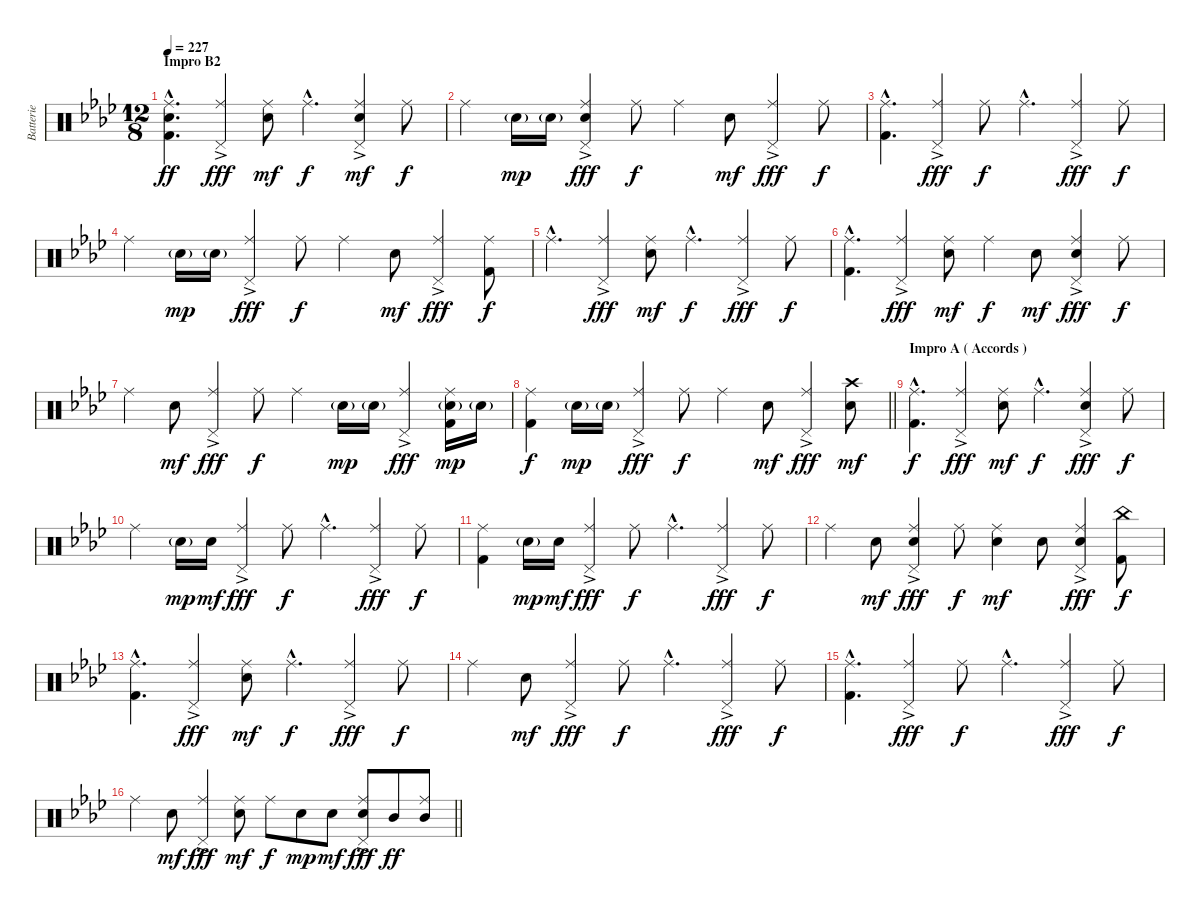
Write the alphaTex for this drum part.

\track ("Batterie" "Batterie") {instrument percussion}
\staff {score}
\articulation defaults
\ts (12 8)
\section ("" "Impro B2")
\tempo 227
\clef neutral
\ks fminor
("Ride (middle)"{hac} "Snare (hit) 2"{hac} "Kick (hit) 2"{hac}).4{d dy ff volume 12 balance 8} ("Ride (middle)" "Pedal Hi-Hat (hit)"{ac}).4{dy fff} ("Ride (middle)" "Snare (hit) 2").8{dy mf} "Ride (middle)"{hac}.4{d dy f} ("Ride (middle)" "Pedal Hi-Hat (hit)"{ac} "Snare (hit) 2").4{dy mf} "Ride (middle)".8{dy f} |
"Ride (middle)".4 "Snare (hit) 2"{g}.16{dy mp} "Snare (hit) 2"{g}.16 ("Ride (middle)" "Pedal Hi-Hat (hit)"{ac} "Snare (hit) 2"{ac}).4{dy fff} "Ride (middle)".8{dy f} "Ride (middle)".4 "Snare (hit) 2".8{dy mf} ("Ride (middle)" "Pedal Hi-Hat (hit)"{ac}).4{dy fff} "Ride (middle)".8{dy f} |
("Ride (middle)"{hac} "Kick (hit) 2"{hac}).4{d} ("Ride (middle)" "Pedal Hi-Hat (hit)"{ac}).4{dy fff} "Ride (middle)".8{dy f} "Ride (middle)"{hac}.4{d} ("Ride (middle)" "Pedal Hi-Hat (hit)"{ac}).4{dy fff} "Ride (middle)".8{dy f} |
"Ride (middle)".4 "Snare (hit) 2"{g}.16{dy mp} "Snare (hit) 2"{g}.16 ("Ride (middle)" "Pedal Hi-Hat (hit)"{ac}).4{dy fff} "Ride (middle)".8{dy f} "Ride (middle)".4 "Snare (hit) 2".8{dy mf} ("Ride (middle)" "Pedal Hi-Hat (hit)"{ac}).4{dy fff} ("Ride (middle)" "Kick (hit) 2").8{dy f} |
"Ride (middle)"{hac}.4{d} ("Ride (middle)" "Pedal Hi-Hat (hit)"{ac}).4{dy fff} ("Ride (middle)" "Snare (hit) 2").8{dy mf} "Ride (middle)"{hac}.4{d dy f} ("Ride (middle)" "Pedal Hi-Hat (hit)"{ac}).4{dy fff} "Ride (middle)".8{dy f} |
("Ride (middle)"{hac} "Kick (hit) 2"{hac}).4{d} ("Ride (middle)" "Pedal Hi-Hat (hit)"{ac}).4{dy fff} ("Ride (middle)" "Snare (hit) 2").8{dy mf} "Ride (middle)".4{dy f} "Snare (hit) 2".8{dy mf} ("Ride (middle)" "Pedal Hi-Hat (hit)"{ac} "Snare (hit) 2").4{dy fff} "Ride (middle)".8{dy f} |
"Ride (middle)".4 "Snare (hit) 2".8{dy mf} ("Ride (middle)" "Pedal Hi-Hat (hit)"{ac}).4{dy fff} "Ride (middle)".8{dy f} "Ride (middle)".4 "Snare (hit) 2"{g}.16{dy mp} "Snare (hit) 2"{g}.16 ("Ride (middle)" "Pedal Hi-Hat (hit)"{ac}).4{dy fff} ("Ride (middle)" "Snare (hit) 2"{g} "Kick (hit) 2").16{dy mp} "Snare (hit) 2"{g}.16 |
\barLineRight lightlight
("Ride (middle)" "Kick (hit) 2").4{dy f} "Snare (hit) 2"{g}.16{dy mp} "Snare (hit) 2"{g}.16 ("Ride (middle)" "Pedal Hi-Hat (hit)"{ac}).4{dy fff} "Ride (middle)".8{dy f} "Ride (middle)".4 "Snare (hit) 2".8{dy mf} ("Ride (middle)" "Pedal Hi-Hat (hit)"{ac}).4{dy fff} ("Crash high (hit)" "Snare (hit) 2").8{dy mf} |
\section ("" "Impro A ( Accords )")
("Ride (middle)"{hac} "Kick (hit) 2"{hac}).4{d dy f volume 12 balance 8} ("Ride (middle)" "Pedal Hi-Hat (hit)"{ac}).4{dy fff} ("Ride (middle)" "Snare (hit) 2").8{dy mf} "Ride (middle)"{hac}.4{d dy f} ("Ride (middle)" "Pedal Hi-Hat (hit)"{ac} "Snare (hit) 2").4{dy fff} "Ride (middle)".8{dy f} |
"Ride (middle)".4 "Snare (hit) 2"{g}.16{dy mp} "Snare (hit) 2".16{dy mf} ("Ride (middle)" "Pedal Hi-Hat (hit)"{ac}).4{dy fff} "Ride (middle)".8{dy f} "Ride (middle)"{hac}.4{d} ("Ride (middle)" "Pedal Hi-Hat (hit)"{ac}).4{dy fff} "Ride (middle)".8{dy f} |
("Ride (middle)" "Kick (hit) 2").4 "Snare (hit) 2"{g}.16{dy mp} "Snare (hit) 2".16{dy mf} ("Ride (middle)" "Pedal Hi-Hat (hit)"{ac}).4{dy fff} "Ride (middle)".8{dy f} "Ride (middle)"{hac}.4{d} ("Ride (middle)" "Pedal Hi-Hat (hit)"{ac}).4{dy fff} "Ride (middle)".8{dy f} |
"Ride (middle)".4 "Snare (hit) 2".8{dy mf} ("Ride (middle)" "Pedal Hi-Hat (hit)"{ac} "Snare (hit) 2").4{dy fff} "Ride (middle)".8{dy f} ("Ride (middle)" "Snare (hit) 2").4{dy mf} "Snare (hit) 2".8 ("Ride (middle)" "Pedal Hi-Hat (hit)"{ac} "Snare (hit) 2").4{dy fff} ("China (hit)" "Kick (hit) 2").8{dy f} |
("Ride (middle)"{hac} "Kick (hit) 2"{hac}).4{d} ("Ride (middle)" "Pedal Hi-Hat (hit)"{ac}).4{dy fff} ("Ride (middle)" "Snare (hit) 2").8{dy mf} "Ride (middle)"{hac}.4{d dy f} ("Ride (middle)" "Pedal Hi-Hat (hit)"{ac}).4{dy fff} "Ride (middle)".8{dy f} |
"Ride (middle)".4 "Snare (hit) 2".8{dy mf} ("Ride (middle)" "Pedal Hi-Hat (hit)"{ac}).4{dy fff} "Ride (middle)".8{dy f} "Ride (middle)"{hac}.4{d} ("Ride (middle)" "Pedal Hi-Hat (hit)"{ac}).4{dy fff} "Ride (middle)".8{dy f} |
("Ride (middle)"{hac} "Kick (hit) 2"{hac}).4{d} ("Ride (middle)" "Pedal Hi-Hat (hit)"{ac}).4{dy fff} "Ride (middle)".8{dy f} "Ride (middle)"{hac}.4{d} ("Ride (middle)" "Pedal Hi-Hat (hit)"{ac}).4{dy fff} "Ride (middle)".8{dy f} |
\barLineRight lightlight "Ride (middle)".4 "Snare (hit) 2".8{dy mf}
("Ride (middle)" "Pedal Hi-Hat (hit)"{ac}).4{dy fff} ("Ride (middle)" "Snare (hit) 2").8{dy mf} "Ride (middle)".8{dy f} "Snare (hit) 2".8{dy mp} "Snare (hit) 2".8{dy mf} ("Ride (middle)" "Pedal Hi-Hat (hit)"{ac} "Snare (hit) 2").8{dy fff} "Mid Tom (hit)".8{dy ff} ("Ride (middle)" "Mid Tom (hit)").8
